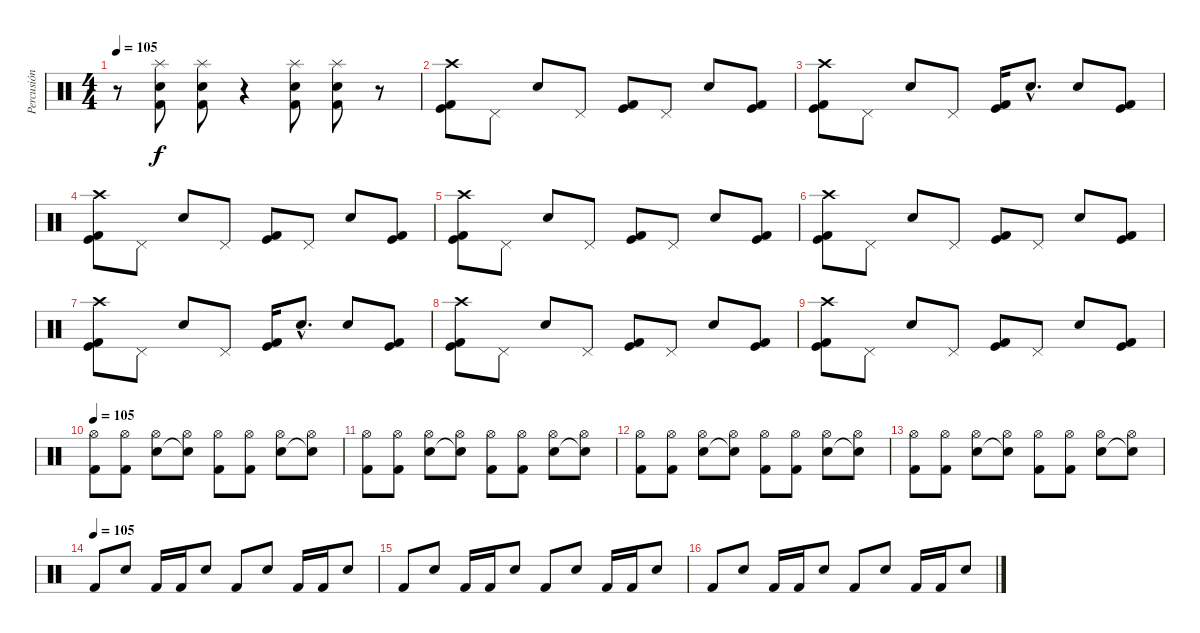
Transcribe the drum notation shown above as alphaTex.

\track ("Percusión" "Percusión") {instrument percussion}
\staff {score}
\articulation defaults
\ts (4 4)
\tempo 105
\clef neutral
\ks c
r.8{dy f} ("Electric Snare (hit)" "Kick (hit) 2" "Splash (hit)").8 ("Electric Snare (hit)" "Kick (hit) 2" "Splash (hit)").8 r.4 ("Electric Snare (hit)" "Kick (hit) 2" "Splash (hit)").8 ("Electric Snare (hit)" "Kick (hit) 2" "Splash (hit)").8 r.8 |
("Kick (hit) 2" "Kick (hit)" "Crash high (hit)").8 "Pedal Hi-Hat (hit)".8 "Electric Snare (hit)".8 "Pedal Hi-Hat (hit)".8 ("Kick (hit) 2" "Kick (hit)").8 "Pedal Hi-Hat (hit)".8 "Electric Snare (hit)".8 ("Kick (hit) 2" "Kick (hit)").8 |
("Kick (hit) 2" "Kick (hit)" "Crash high (hit)").8 "Pedal Hi-Hat (hit)".8 "Electric Snare (hit)".8 "Pedal Hi-Hat (hit)".8 ("Kick (hit) 2" "Kick (hit)").16 "Electric Snare (hit)"{hac}.8{d} "Electric Snare (hit)".8 ("Kick (hit) 2" "Kick (hit)").8 |
("Kick (hit) 2" "Kick (hit)" "Crash high (hit)").8 "Pedal Hi-Hat (hit)".8 "Electric Snare (hit)".8 "Pedal Hi-Hat (hit)".8 ("Kick (hit) 2" "Kick (hit)").8 "Pedal Hi-Hat (hit)".8 "Electric Snare (hit)".8 ("Kick (hit) 2" "Kick (hit)").8 |
("Kick (hit) 2" "Kick (hit)" "Crash high (hit)").8 "Pedal Hi-Hat (hit)".8 "Electric Snare (hit)".8 "Pedal Hi-Hat (hit)".8 ("Kick (hit) 2" "Kick (hit)").8 "Pedal Hi-Hat (hit)".8 "Electric Snare (hit)".8 ("Kick (hit) 2" "Kick (hit)").8 |
("Kick (hit) 2" "Kick (hit)" "Crash high (hit)").8 "Pedal Hi-Hat (hit)".8 "Electric Snare (hit)".8 "Pedal Hi-Hat (hit)".8 ("Kick (hit) 2" "Kick (hit)").8 "Pedal Hi-Hat (hit)".8 "Electric Snare (hit)".8 ("Kick (hit) 2" "Kick (hit)").8 |
("Kick (hit) 2" "Kick (hit)" "Crash high (hit)").8 "Pedal Hi-Hat (hit)".8 "Electric Snare (hit)".8 "Pedal Hi-Hat (hit)".8 ("Kick (hit) 2" "Kick (hit)").16 "Electric Snare (hit)"{hac}.8{d} "Electric Snare (hit)".8 ("Kick (hit) 2" "Kick (hit)").8 |
("Kick (hit) 2" "Kick (hit)" "Crash high (hit)").8 "Pedal Hi-Hat (hit)".8 "Electric Snare (hit)".8 "Pedal Hi-Hat (hit)".8 ("Kick (hit) 2" "Kick (hit)").8 "Pedal Hi-Hat (hit)".8 "Electric Snare (hit)".8 ("Kick (hit) 2" "Kick (hit)").8 |
("Kick (hit) 2" "Kick (hit)" "Crash high (hit)").8 "Pedal Hi-Hat (hit)".8 "Electric Snare (hit)".8 "Pedal Hi-Hat (hit)".8 ("Kick (hit) 2" "Kick (hit)").8 "Pedal Hi-Hat (hit)".8 "Electric Snare (hit)".8 ("Kick (hit) 2" "Kick (hit)").8 |
\tempo 105
("Hi-Hat (open)" "Kick (hit) 2").8 ("Hi-Hat (open)" "Kick (hit) 2").8 ("Electric Snare (hit)" "Hi-Hat (open)").8 ("Snare (hit)"{t} "Hi-Hat (open)").8 ("Hi-Hat (open)" "Kick (hit) 2").8 ("Hi-Hat (open)" "Kick (hit) 2").8 ("Electric Snare (hit)" "Hi-Hat (open)").8 ("Snare (hit)"{t} "Hi-Hat (open)").8 |
("Hi-Hat (open)" "Kick (hit) 2").8 ("Hi-Hat (open)" "Kick (hit) 2").8 ("Electric Snare (hit)" "Hi-Hat (open)").8 ("Snare (hit)"{t} "Hi-Hat (open)").8 ("Hi-Hat (open)" "Kick (hit) 2").8 ("Hi-Hat (open)" "Kick (hit) 2").8 ("Electric Snare (hit)" "Hi-Hat (open)").8 ("Snare (hit)"{t} "Hi-Hat (open)").8 |
("Hi-Hat (open)" "Kick (hit) 2").8 ("Hi-Hat (open)" "Kick (hit) 2").8 ("Electric Snare (hit)" "Hi-Hat (open)").8 ("Snare (hit)"{t} "Hi-Hat (open)").8 ("Hi-Hat (open)" "Kick (hit) 2").8 ("Hi-Hat (open)" "Kick (hit) 2").8 ("Electric Snare (hit)" "Hi-Hat (open)").8 ("Snare (hit)"{t} "Hi-Hat (open)").8 |
("Hi-Hat (open)" "Kick (hit) 2").8 ("Hi-Hat (open)" "Kick (hit) 2").8 ("Electric Snare (hit)" "Hi-Hat (open)").8 ("Snare (hit)"{t} "Hi-Hat (open)").8 ("Hi-Hat (open)" "Kick (hit) 2").8 ("Hi-Hat (open)" "Kick (hit) 2").8 ("Electric Snare (hit)" "Hi-Hat (open)").8 ("Snare (hit)"{t} "Hi-Hat (open)").8 |
\tempo (105)
"Kick (hit) 2".8 "Electric Snare (hit)".8 "Kick (hit) 2".16 "Kick (hit) 2".16 "Electric Snare (hit)".8 "Kick (hit) 2".8 "Electric Snare (hit)".8 "Kick (hit) 2".16 "Kick (hit) 2".16 "Electric Snare (hit)".8 |
"Kick (hit) 2".8 "Electric Snare (hit)".8 "Kick (hit) 2".16 "Kick (hit) 2".16 "Electric Snare (hit)".8 "Kick (hit) 2".8 "Electric Snare (hit)".8 "Kick (hit) 2".16 "Kick (hit) 2".16 "Electric Snare (hit)".8 |
"Kick (hit) 2".8 "Electric Snare (hit)".8 "Kick (hit) 2".16 "Kick (hit) 2".16 "Electric Snare (hit)".8 "Kick (hit) 2".8 "Electric Snare (hit)".8 "Kick (hit) 2".16 "Kick (hit) 2".16 "Electric Snare (hit)".8
